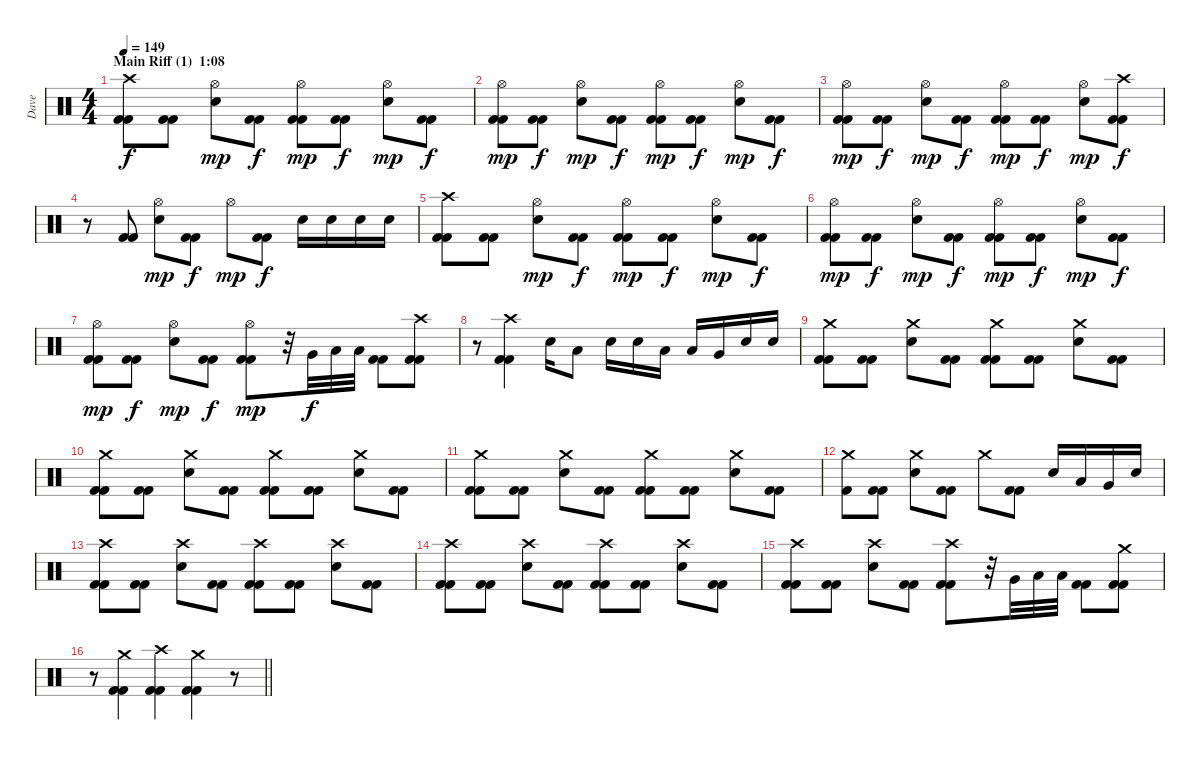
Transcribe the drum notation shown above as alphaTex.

\track ("Dave" "Dave") {instrument percussion}
\staff {score}
\articulation defaults
\ts (4 4)
\section ("" "Main Riff (1)  1:08")
\tempo 149
\clef neutral
\ks c
("Crash high (hit)" "Kick (hit) 2" "Kick (hit) 2").8{dy f volume 16} ("Kick (hit) 2" "Kick (hit) 2").8 ("Hi-Hat (open)" "Electric Snare (hit)").8{dy mp} ("Kick (hit) 2" "Kick (hit) 2").8{dy f} ("Hi-Hat (open)" "Kick (hit) 2" "Kick (hit) 2").8{dy mp} ("Kick (hit) 2" "Kick (hit) 2").8{dy f} ("Hi-Hat (open)" "Electric Snare (hit)").8{dy mp} ("Kick (hit) 2" "Kick (hit) 2").8{dy f} |
("Hi-Hat (open)" "Kick (hit) 2" "Kick (hit) 2").8{dy mp} ("Kick (hit) 2" "Kick (hit) 2").8{dy f} ("Hi-Hat (open)" "Electric Snare (hit)").8{dy mp} ("Kick (hit) 2" "Kick (hit) 2").8{dy f} ("Hi-Hat (open)" "Kick (hit) 2" "Kick (hit) 2").8{dy mp} ("Kick (hit) 2" "Kick (hit) 2").8{dy f} ("Hi-Hat (open)" "Electric Snare (hit)").8{dy mp} ("Kick (hit) 2" "Kick (hit) 2").8{dy f} |
("Hi-Hat (open)" "Kick (hit) 2" "Kick (hit) 2").8{dy mp} ("Kick (hit) 2" "Kick (hit) 2").8{dy f} ("Hi-Hat (open)" "Electric Snare (hit)").8{dy mp} ("Kick (hit) 2" "Kick (hit) 2").8{dy f} ("Hi-Hat (open)" "Kick (hit) 2" "Kick (hit) 2").8{dy mp} ("Kick (hit) 2" "Kick (hit) 2").8{dy f} ("Hi-Hat (open)" "Electric Snare (hit)").8{dy mp} ("Crash high (hit)" "Kick (hit) 2" "Kick (hit) 2").8{dy f} |
r.8 ("Kick (hit) 2" "Kick (hit) 2").8 ("Hi-Hat (open)" "Electric Snare (hit)").8{dy mp} ("Kick (hit) 2" "Kick (hit) 2").8{dy f} "Hi-Hat (open)".8{dy mp} ("Kick (hit) 2" "Kick (hit) 2").8{dy f} "Electric Snare (hit)".16 "Electric Snare (hit)".16 "Electric Snare (hit)".16 "Electric Snare (hit)".16 |
("Crash high (hit)" "Kick (hit) 2" "Kick (hit) 2").8 ("Kick (hit) 2" "Kick (hit) 2").8 ("Hi-Hat (open)" "Electric Snare (hit)").8{dy mp} ("Kick (hit) 2" "Kick (hit) 2").8{dy f} ("Hi-Hat (open)" "Kick (hit) 2" "Kick (hit) 2").8{dy mp} ("Kick (hit) 2" "Kick (hit) 2").8{dy f} ("Hi-Hat (open)" "Electric Snare (hit)").8{dy mp} ("Kick (hit) 2" "Kick (hit) 2").8{dy f} |
("Hi-Hat (open)" "Kick (hit) 2" "Kick (hit) 2").8{dy mp} ("Kick (hit) 2" "Kick (hit) 2").8{dy f} ("Hi-Hat (open)" "Electric Snare (hit)").8{dy mp} ("Kick (hit) 2" "Kick (hit) 2").8{dy f} ("Hi-Hat (open)" "Kick (hit) 2" "Kick (hit) 2").8{dy mp} ("Kick (hit) 2" "Kick (hit) 2").8{dy f} ("Hi-Hat (open)" "Electric Snare (hit)").8{dy mp} ("Kick (hit) 2" "Kick (hit) 2").8{dy f} |
("Hi-Hat (open)" "Kick (hit) 2" "Kick (hit) 2").8{dy mp} ("Kick (hit) 2" "Kick (hit) 2").8{dy f} ("Hi-Hat (open)" "Electric Snare (hit)").8{dy mp} ("Kick (hit) 2" "Kick (hit) 2").8{dy f} ("Hi-Hat (open)" "Kick (hit) 2" "Kick (hit) 2").8{dy mp} r.32 "Very Low Tom (hit)".32{dy f} "Low Floor Tom (hit)".32 "Low Floor Tom (hit)".32 ("Kick (hit) 2" "Kick (hit) 2").8 ("Crash high (hit)" "Kick (hit) 2" "Kick (hit) 2").8 |
r.8 ("Crash high (hit)" "Kick (hit) 2" "Kick (hit) 2").4 "Electric Snare (hit)".16 "Low Tom (hit)".8 "Electric Snare (hit)".16 "Electric Snare (hit)".16 "Low Tom (hit)".16 "Low Tom (hit)".16 "Very Low Tom (hit)".16 "Electric Snare (hit)".16 "Electric Snare (hit)".16 |
("Crash medium (hit)" "Kick (hit) 2" "Kick (hit) 2").8 ("Kick (hit) 2" "Kick (hit) 2").8 ("Crash medium (hit)" "Electric Snare (hit)").8 ("Kick (hit) 2" "Kick (hit) 2").8 ("Crash medium (hit)" "Kick (hit) 2" "Kick (hit) 2").8 ("Kick (hit) 2" "Kick (hit) 2").8 ("Crash medium (hit)" "Electric Snare (hit)").8 ("Kick (hit) 2" "Kick (hit) 2").8 |
("Crash medium (hit)" "Kick (hit) 2" "Kick (hit) 2").8 ("Kick (hit) 2" "Kick (hit) 2").8 ("Crash medium (hit)" "Electric Snare (hit)").8 ("Kick (hit) 2" "Kick (hit) 2").8 ("Crash medium (hit)" "Kick (hit) 2" "Kick (hit) 2").8 ("Kick (hit) 2" "Kick (hit) 2").8 ("Crash medium (hit)" "Electric Snare (hit)").8 ("Kick (hit) 2" "Kick (hit) 2").8 |
("Crash medium (hit)" "Kick (hit) 2" "Kick (hit) 2").8 ("Kick (hit) 2" "Kick (hit) 2").8 ("Crash medium (hit)" "Electric Snare (hit)").8 ("Kick (hit) 2" "Kick (hit) 2").8 ("Crash medium (hit)" "Kick (hit) 2" "Kick (hit) 2").8 ("Kick (hit) 2" "Kick (hit) 2").8 ("Crash medium (hit)" "Electric Snare (hit)").8 ("Kick (hit) 2" "Kick (hit) 2").8 |
("Crash medium (hit)" "Kick (hit) 2").8 ("Kick (hit) 2" "Kick (hit) 2").8 ("Crash medium (hit)" "Electric Snare (hit)").8 ("Kick (hit) 2" "Kick (hit) 2").8 "Crash medium (hit)".8 ("Kick (hit) 2" "Kick (hit) 2").8 "Electric Snare (hit)".16 "Low Tom (hit)".16 "Very Low Tom (hit)".16 "Electric Snare (hit)".16 |
("Crash high (hit)" "Kick (hit) 2" "Kick (hit) 2").8 ("Kick (hit) 2" "Kick (hit) 2").8 ("Crash high (hit)" "Electric Snare (hit)").8 ("Kick (hit) 2" "Kick (hit) 2").8 ("Crash high (hit)" "Kick (hit) 2" "Kick (hit) 2").8 ("Kick (hit) 2" "Kick (hit) 2").8 ("Crash high (hit)" "Electric Snare (hit)").8 ("Kick (hit) 2" "Kick (hit) 2").8 |
("Crash high (hit)" "Kick (hit) 2" "Kick (hit) 2").8 ("Kick (hit) 2" "Kick (hit) 2").8 ("Crash high (hit)" "Electric Snare (hit)").8 ("Kick (hit) 2" "Kick (hit) 2").8 ("Crash high (hit)" "Kick (hit) 2" "Kick (hit) 2").8 ("Kick (hit) 2" "Kick (hit) 2").8 ("Crash high (hit)" "Electric Snare (hit)").8 ("Kick (hit) 2" "Kick (hit) 2").8 |
("Crash high (hit)" "Kick (hit) 2" "Kick (hit) 2").8 ("Kick (hit) 2" "Kick (hit) 2").8 ("Crash high (hit)" "Electric Snare (hit)").8 ("Kick (hit) 2" "Kick (hit) 2").8 ("Crash high (hit)" "Kick (hit) 2" "Kick (hit) 2").8 r.32 "Very Low Tom (hit)".32 "Low Floor Tom (hit)".32 "Low Floor Tom (hit)".32 ("Kick (hit) 2" "Kick (hit) 2").8 ("Crash medium (hit)" "Kick (hit) 2" "Kick (hit) 2").8 |
\barLineRight lightlight
r.8 ("Crash medium (hit)" "Kick (hit) 2" "Kick (hit) 2").4 ("Crash high (hit)" "Kick (hit) 2" "Kick (hit) 2").4 ("Crash medium (hit)" "Kick (hit) 2" "Kick (hit) 2").4 r.8
